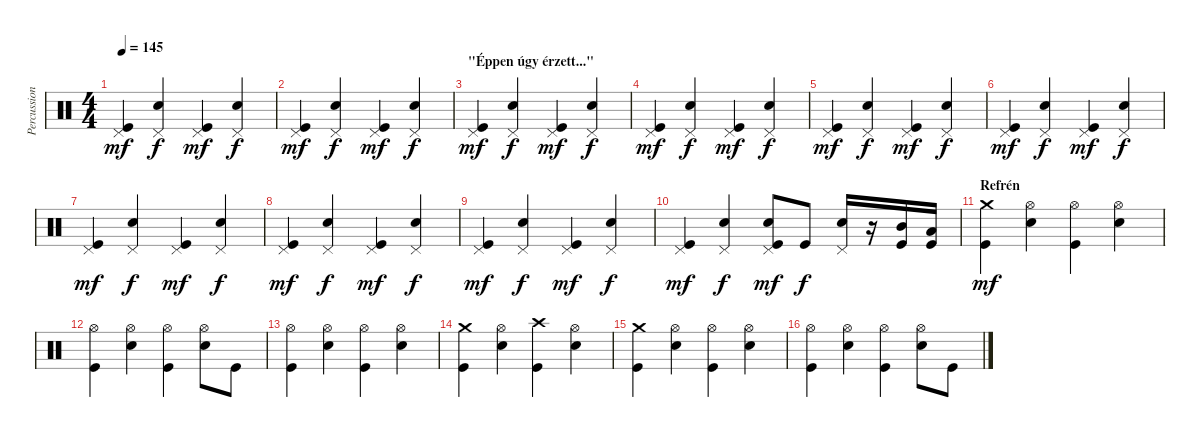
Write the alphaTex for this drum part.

\track ("Percussion" "Percussion") {instrument percussion}
\staff {score}
\articulation defaults
\ts (4 4)
\tempo 145
\clef neutral
\ks c
("Pedal Hi-Hat (hit)" "Kick (hit)").4{dy mf} ("Pedal Hi-Hat (hit)" "Electric Snare (hit)").4{dy f} ("Pedal Hi-Hat (hit)" "Kick (hit)").4{dy mf} ("Pedal Hi-Hat (hit)" "Electric Snare (hit)").4{dy f} |
("Pedal Hi-Hat (hit)" "Kick (hit)").4{dy mf} ("Pedal Hi-Hat (hit)" "Electric Snare (hit)").4{dy f} ("Pedal Hi-Hat (hit)" "Kick (hit)").4{dy mf} ("Pedal Hi-Hat (hit)" "Electric Snare (hit)").4{dy f} |
\section ("" "\"Éppen úgy érzett...\"")
("Pedal Hi-Hat (hit)" "Kick (hit)").4{dy mf} ("Pedal Hi-Hat (hit)" "Electric Snare (hit)").4{dy f} ("Pedal Hi-Hat (hit)" "Kick (hit)").4{dy mf} ("Pedal Hi-Hat (hit)" "Electric Snare (hit)").4{dy f} |
("Pedal Hi-Hat (hit)" "Kick (hit)").4{dy mf} ("Pedal Hi-Hat (hit)" "Electric Snare (hit)").4{dy f} ("Pedal Hi-Hat (hit)" "Kick (hit)").4{dy mf} ("Pedal Hi-Hat (hit)" "Electric Snare (hit)").4{dy f} |
("Pedal Hi-Hat (hit)" "Kick (hit)").4{dy mf} ("Pedal Hi-Hat (hit)" "Electric Snare (hit)").4{dy f} ("Pedal Hi-Hat (hit)" "Kick (hit)").4{dy mf} ("Pedal Hi-Hat (hit)" "Electric Snare (hit)").4{dy f} |
("Pedal Hi-Hat (hit)" "Kick (hit)").4{dy mf} ("Pedal Hi-Hat (hit)" "Electric Snare (hit)").4{dy f} ("Pedal Hi-Hat (hit)" "Kick (hit)").4{dy mf} ("Pedal Hi-Hat (hit)" "Electric Snare (hit)").4{dy f} |
("Pedal Hi-Hat (hit)" "Kick (hit)").4{dy mf} ("Pedal Hi-Hat (hit)" "Electric Snare (hit)").4{dy f} ("Pedal Hi-Hat (hit)" "Kick (hit)").4{dy mf} ("Pedal Hi-Hat (hit)" "Electric Snare (hit)").4{dy f} |
("Pedal Hi-Hat (hit)" "Kick (hit)").4{dy mf} ("Pedal Hi-Hat (hit)" "Electric Snare (hit)").4{dy f} ("Pedal Hi-Hat (hit)" "Kick (hit)").4{dy mf} ("Pedal Hi-Hat (hit)" "Electric Snare (hit)").4{dy f} |
("Pedal Hi-Hat (hit)" "Kick (hit)").4{dy mf} ("Pedal Hi-Hat (hit)" "Electric Snare (hit)").4{dy f} ("Pedal Hi-Hat (hit)" "Kick (hit)").4{dy mf} ("Pedal Hi-Hat (hit)" "Electric Snare (hit)").4{dy f} |
("Pedal Hi-Hat (hit)" "Kick (hit)").4{dy mf} ("Pedal Hi-Hat (hit)" "Electric Snare (hit)").4{dy f} ("Pedal Hi-Hat (hit)" "Kick (hit)" "Electric Snare (hit)").8{dy mf} "Kick (hit)".8{dy f} ("Pedal Hi-Hat (hit)" "Electric Snare (hit)").16 r.16 ("Kick (hit)" "Mid Tom (hit)").16 ("Kick (hit)" "Low Tom (hit)").16 |
\section ("" "Refrén")
("Crash medium (hit)" "Kick (hit)").4{dy mf} ("Hi-Hat (open)" "Electric Snare (hit)").4 ("Hi-Hat (open)" "Kick (hit)").4 ("Hi-Hat (open)" "Electric Snare (hit)").4 |
("Hi-Hat (open)" "Kick (hit)").4 ("Hi-Hat (open)" "Electric Snare (hit)").4 ("Hi-Hat (open)" "Kick (hit)").4 ("Hi-Hat (open)" "Electric Snare (hit)").8 "Kick (hit)".8 |
("Hi-Hat (open)" "Kick (hit)").4 ("Hi-Hat (open)" "Electric Snare (hit)").4 ("Hi-Hat (open)" "Kick (hit)").4 ("Hi-Hat (open)" "Electric Snare (hit)").4 |
("Crash medium (hit)" "Kick (hit)").4 ("Hi-Hat (open)" "Electric Snare (hit)").4 ("Crash high (hit)" "Kick (hit)").4 ("Hi-Hat (open)" "Electric Snare (hit)").4 |
("Crash medium (hit)" "Kick (hit)").4 ("Hi-Hat (open)" "Electric Snare (hit)").4 ("Hi-Hat (open)" "Kick (hit)").4 ("Hi-Hat (open)" "Electric Snare (hit)").4 |
("Hi-Hat (open)" "Kick (hit)").4 ("Hi-Hat (open)" "Electric Snare (hit)").4 ("Hi-Hat (open)" "Kick (hit)").4 ("Hi-Hat (open)" "Electric Snare (hit)").8 "Kick (hit)".8
